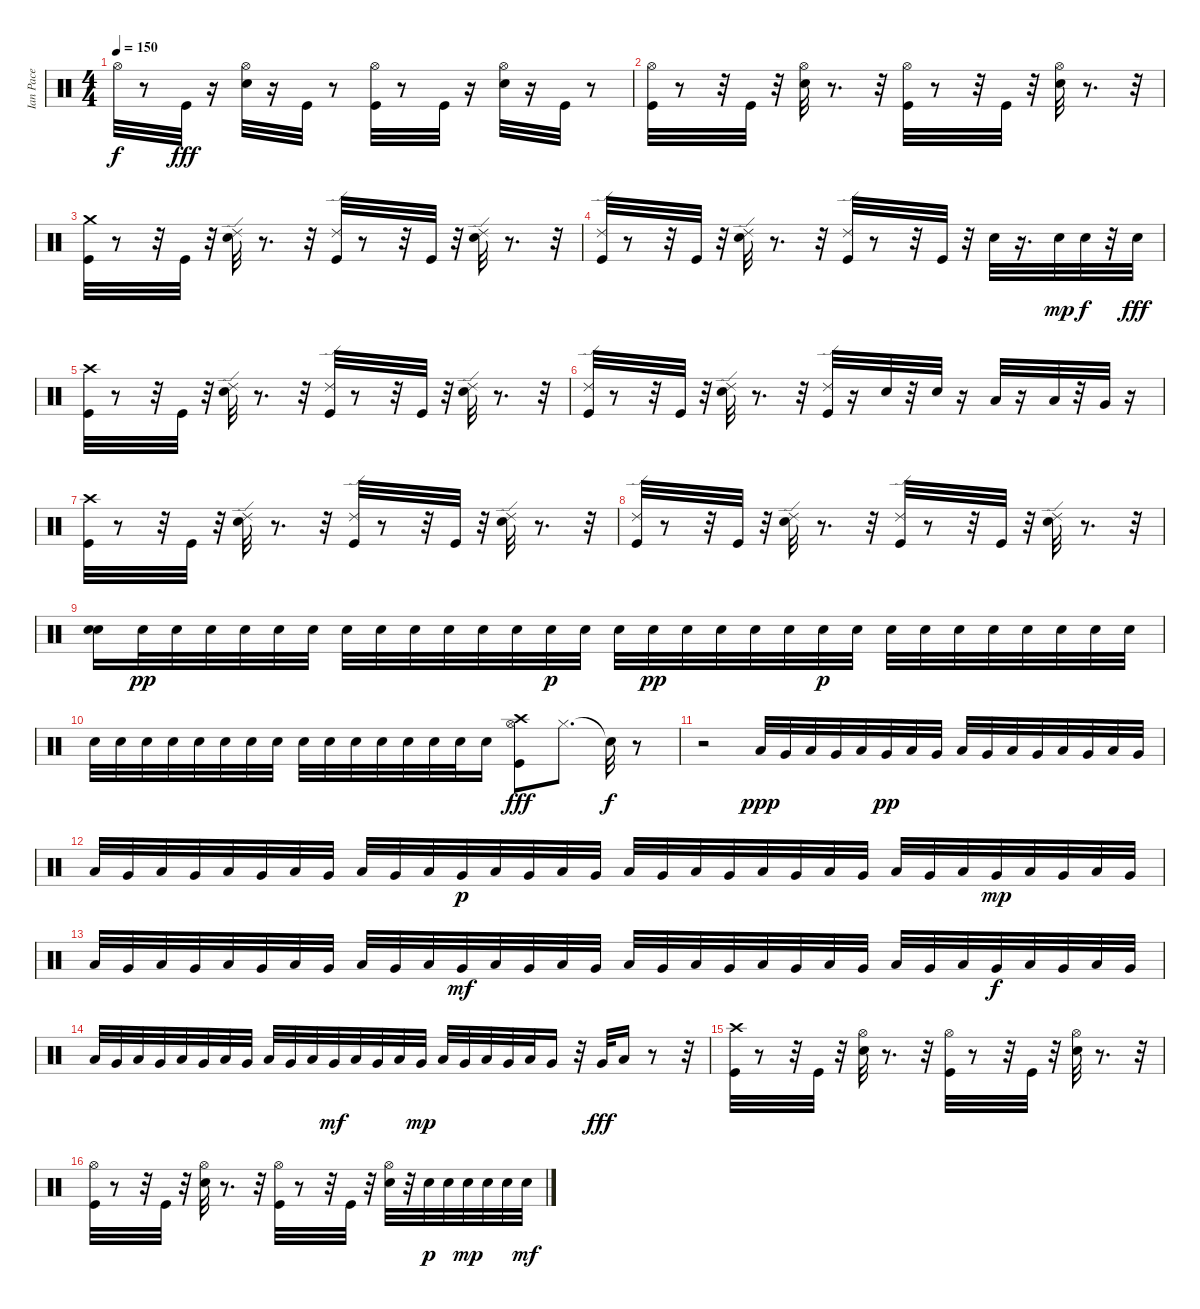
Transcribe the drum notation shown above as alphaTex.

\track ("Ian Pace" "Ian Pace") {instrument percussion}
\staff {score}
\articulation defaults
\ts (4 4)
\tempo 150
\clef neutral
\ks c "Hi-Hat (open)".32{dy f}
r.8 "Kick (hit)".32{dy fff} r.16 ("Electric Snare (hit)" "Hi-Hat (open)").32 r.16 "Kick (hit)".32 r.8 ("Kick (hit)" "Hi-Hat (open)").32 r.8 "Kick (hit)".32 r.16 ("Electric Snare (hit)" "Hi-Hat (open)").32 r.16 "Kick (hit)".32 r.8 |
("Kick (hit)" "Hi-Hat (open)").32 r.8 r.32 "Kick (hit)".32 r.32 ("Electric Snare (hit)" "Hi-Hat (open)").32 r.8{d} r.32 ("Kick (hit)" "Hi-Hat (open)").32 r.8 r.32 "Kick (hit)".32 r.32 ("Electric Snare (hit)" "Hi-Hat (open)").32 r.8{d} r.32 |
("Crash medium (hit)" "Kick (hit)").32 r.8 r.32 "Kick (hit)".32 r.32 ("Ride (edge) 2" "Electric Snare (hit)").32 r.8{d} r.32 ("Ride (edge) 2" "Kick (hit)").32 r.8 r.32 "Kick (hit)".32 r.32 ("Ride (edge) 2" "Electric Snare (hit)").32 r.8{d} r.32 |
("Ride (edge) 2" "Kick (hit)").32 r.8 r.32 "Kick (hit)".32 r.32 ("Ride (edge) 2" "Electric Snare (hit)").32 r.8{d} r.32 ("Ride (edge) 2" "Kick (hit)").32 r.8 r.32 "Kick (hit)".32 r.32 "Electric Snare (hit)".32 r.16{d} "Electric Snare (hit)".32{dy mp} "Electric Snare (hit)".32{dy f} r.32 "Electric Snare (hit)".32{dy fff} |
("Crash high (hit)" "Kick (hit)").32 r.8 r.32 "Kick (hit)".32 r.32 ("Ride (edge) 2" "Electric Snare (hit)").32 r.8{d} r.32 ("Kick (hit)" "Ride (edge) 2").32 r.8 r.32 "Kick (hit)".32 r.32 ("Ride (edge) 2" "Electric Snare (hit)").32 r.8{d} r.32 |
("Kick (hit)" "Ride (edge) 2").32 r.8 r.32 "Kick (hit)".32 r.32 ("Ride (edge) 2" "Electric Snare (hit)").32 r.8{d} r.32 ("Kick (hit)" "Ride (edge) 2").32 r.16 "Electric Snare (hit)".32 r.32 "Electric Snare (hit)".32 r.16 "Low Tom (hit)".32 r.16 "Low Tom (hit)".32 r.32 "Very Low Tom (hit)".32 r.16 |
("Kick (hit)" "Crash high (hit)").32 r.8 r.32 "Kick (hit)".32 r.32 ("Electric Snare (hit)" "Ride (edge) 2").32 r.8{d} r.32 ("Kick (hit)" "Ride (edge) 2").32 r.8 r.32 "Kick (hit)".32 r.32 ("Electric Snare (hit)" "Ride (edge) 2").32 r.8{d} r.32 |
("Kick (hit)" "Ride (edge) 2").32 r.8 r.32 "Kick (hit)".32 r.32 ("Electric Snare (hit)" "Ride (edge) 2").32 r.8{d} r.32 ("Kick (hit)" "Ride (edge) 2").32 r.8 r.32 "Kick (hit)".32 r.32 ("Electric Snare (hit)" "Ride (edge) 2").32 r.8{d} r.32 |
("Electric Snare (hit)" "Electric Snare (hit)").16 "Electric Snare (hit)".32{dy pp} "Electric Snare (hit)".32 "Electric Snare (hit)".32 "Electric Snare (hit)".32 "Electric Snare (hit)".32 "Electric Snare (hit)".32 "Electric Snare (hit)".32 "Electric Snare (hit)".32 "Electric Snare (hit)".32 "Electric Snare (hit)".32 "Electric Snare (hit)".32 "Electric Snare (hit)".32 "Electric Snare (hit)".32{dy p} "Electric Snare (hit)".32 "Electric Snare (hit)".32 "Electric Snare (hit)".32{dy pp} "Electric Snare (hit)".32 "Electric Snare (hit)".32 "Electric Snare (hit)".32 "Electric Snare (hit)".32 "Electric Snare (hit)".32{dy p} "Electric Snare (hit)".32 "Electric Snare (hit)".32 "Electric Snare (hit)".32 "Electric Snare (hit)".32 "Electric Snare (hit)".32 "Electric Snare (hit)".32 "Electric Snare (hit)".32 "Electric Snare (hit)".32 "Electric Snare (hit)".32 |
"Electric Snare (hit)".32 "Electric Snare (hit)".32 "Electric Snare (hit)".32 "Electric Snare (hit)".32 "Electric Snare (hit)".32 "Electric Snare (hit)".32 "Electric Snare (hit)".32 "Electric Snare (hit)".32 "Electric Snare (hit)".32 "Electric Snare (hit)".32 "Electric Snare (hit)".32 "Electric Snare (hit)".32 "Electric Snare (hit)".32 "Electric Snare (hit)".32 "Electric Snare (hit)".32 "Electric Snare (hit)".16 ("Hi-Hat (open)" "Crash high (hit)" "Kick (hit)").8{dy fff} "Hi-Hat (closed)".8{d} "Snare (hit)"{t}.32{dy f} r.8 |
r.2 "Low Tom (hit)".32{dy ppp} "Very Low Tom (hit)".32 "Low Tom (hit)".32 "Very Low Tom (hit)".32 "Low Tom (hit)".32 "Very Low Tom (hit)".32{dy pp} "Low Tom (hit)".32 "Very Low Tom (hit)".32 "Low Tom (hit)".32 "Very Low Tom (hit)".32 "Low Tom (hit)".32 "Very Low Tom (hit)".32 "Low Tom (hit)".32 "Very Low Tom (hit)".32 "Low Tom (hit)".32 "Very Low Tom (hit)".32 |
"Low Tom (hit)".32 "Very Low Tom (hit)".32 "Low Tom (hit)".32 "Very Low Tom (hit)".32 "Low Tom (hit)".32 "Very Low Tom (hit)".32 "Low Tom (hit)".32 "Very Low Tom (hit)".32 "Low Tom (hit)".32 "Very Low Tom (hit)".32 "Low Tom (hit)".32 "Very Low Tom (hit)".32{dy p} "Low Tom (hit)".32 "Very Low Tom (hit)".32 "Low Tom (hit)".32 "Very Low Tom (hit)".32 "Low Tom (hit)".32 "Very Low Tom (hit)".32 "Low Tom (hit)".32 "Very Low Tom (hit)".32 "Low Tom (hit)".32 "Very Low Tom (hit)".32 "Low Tom (hit)".32 "Very Low Tom (hit)".32 "Low Tom (hit)".32 "Very Low Tom (hit)".32 "Low Tom (hit)".32 "Very Low Tom (hit)".32{dy mp} "Low Tom (hit)".32 "Very Low Tom (hit)".32 "Low Tom (hit)".32 "Very Low Tom (hit)".32 |
"Low Tom (hit)".32 "Very Low Tom (hit)".32 "Low Tom (hit)".32 "Very Low Tom (hit)".32 "Low Tom (hit)".32 "Very Low Tom (hit)".32 "Low Tom (hit)".32 "Very Low Tom (hit)".32 "Low Tom (hit)".32 "Very Low Tom (hit)".32 "Low Tom (hit)".32 "Very Low Tom (hit)".32{dy mf} "Low Tom (hit)".32 "Very Low Tom (hit)".32 "Low Tom (hit)".32 "Very Low Tom (hit)".32 "Low Tom (hit)".32 "Very Low Tom (hit)".32 "Low Tom (hit)".32 "Very Low Tom (hit)".32 "Low Tom (hit)".32 "Very Low Tom (hit)".32 "Low Tom (hit)".32 "Very Low Tom (hit)".32 "Low Tom (hit)".32 "Very Low Tom (hit)".32 "Low Tom (hit)".32 "Very Low Tom (hit)".32{dy f} "Low Tom (hit)".32 "Very Low Tom (hit)".32 "Low Tom (hit)".32 "Very Low Tom (hit)".32 |
"Low Tom (hit)".32 "Very Low Tom (hit)".32 "Low Tom (hit)".32 "Very Low Tom (hit)".32 "Low Tom (hit)".32 "Very Low Tom (hit)".32 "Low Tom (hit)".32 "Very Low Tom (hit)".32 "Low Tom (hit)".32 "Very Low Tom (hit)".32 "Low Tom (hit)".32 "Very Low Tom (hit)".32{dy mf} "Low Tom (hit)".32 "Very Low Tom (hit)".32 "Low Tom (hit)".32 "Very Low Tom (hit)".32{dy mp} "Low Tom (hit)".32 "Very Low Tom (hit)".32 "Low Tom (hit)".32 "Very Low Tom (hit)".32 "Low Tom (hit)".32 "Very Low Tom (hit)".16 r.32 "Very Low Tom (hit)".32{dy fff} "Low Tom (hit)".16 r.8 r.32 |
("Kick (hit)" "Crash high (hit)").32 r.8 r.32 "Kick (hit)".32 r.32 ("Hi-Hat (open)" "Electric Snare (hit)").32 r.8{d} r.32 ("Hi-Hat (open)" "Kick (hit)").32 r.8 r.32 "Kick (hit)".32 r.32 ("Electric Snare (hit)" "Hi-Hat (open)").32 r.8{d} r.32 |
("Kick (hit)" "Hi-Hat (open)").32 r.8 r.32 "Kick (hit)".32 r.32 ("Hi-Hat (open)" "Electric Snare (hit)").32 r.8{d} r.32 ("Kick (hit)" "Hi-Hat (open)").32 r.8 r.32 "Kick (hit)".32 r.32 ("Electric Snare (hit)" "Hi-Hat (open)").32 r.32 "Electric Snare (hit)".32{dy p} "Electric Snare (hit)".32 "Electric Snare (hit)".32{dy mp} "Electric Snare (hit)".32 "Electric Snare (hit)".32 "Electric Snare (hit)".32{dy mf}
